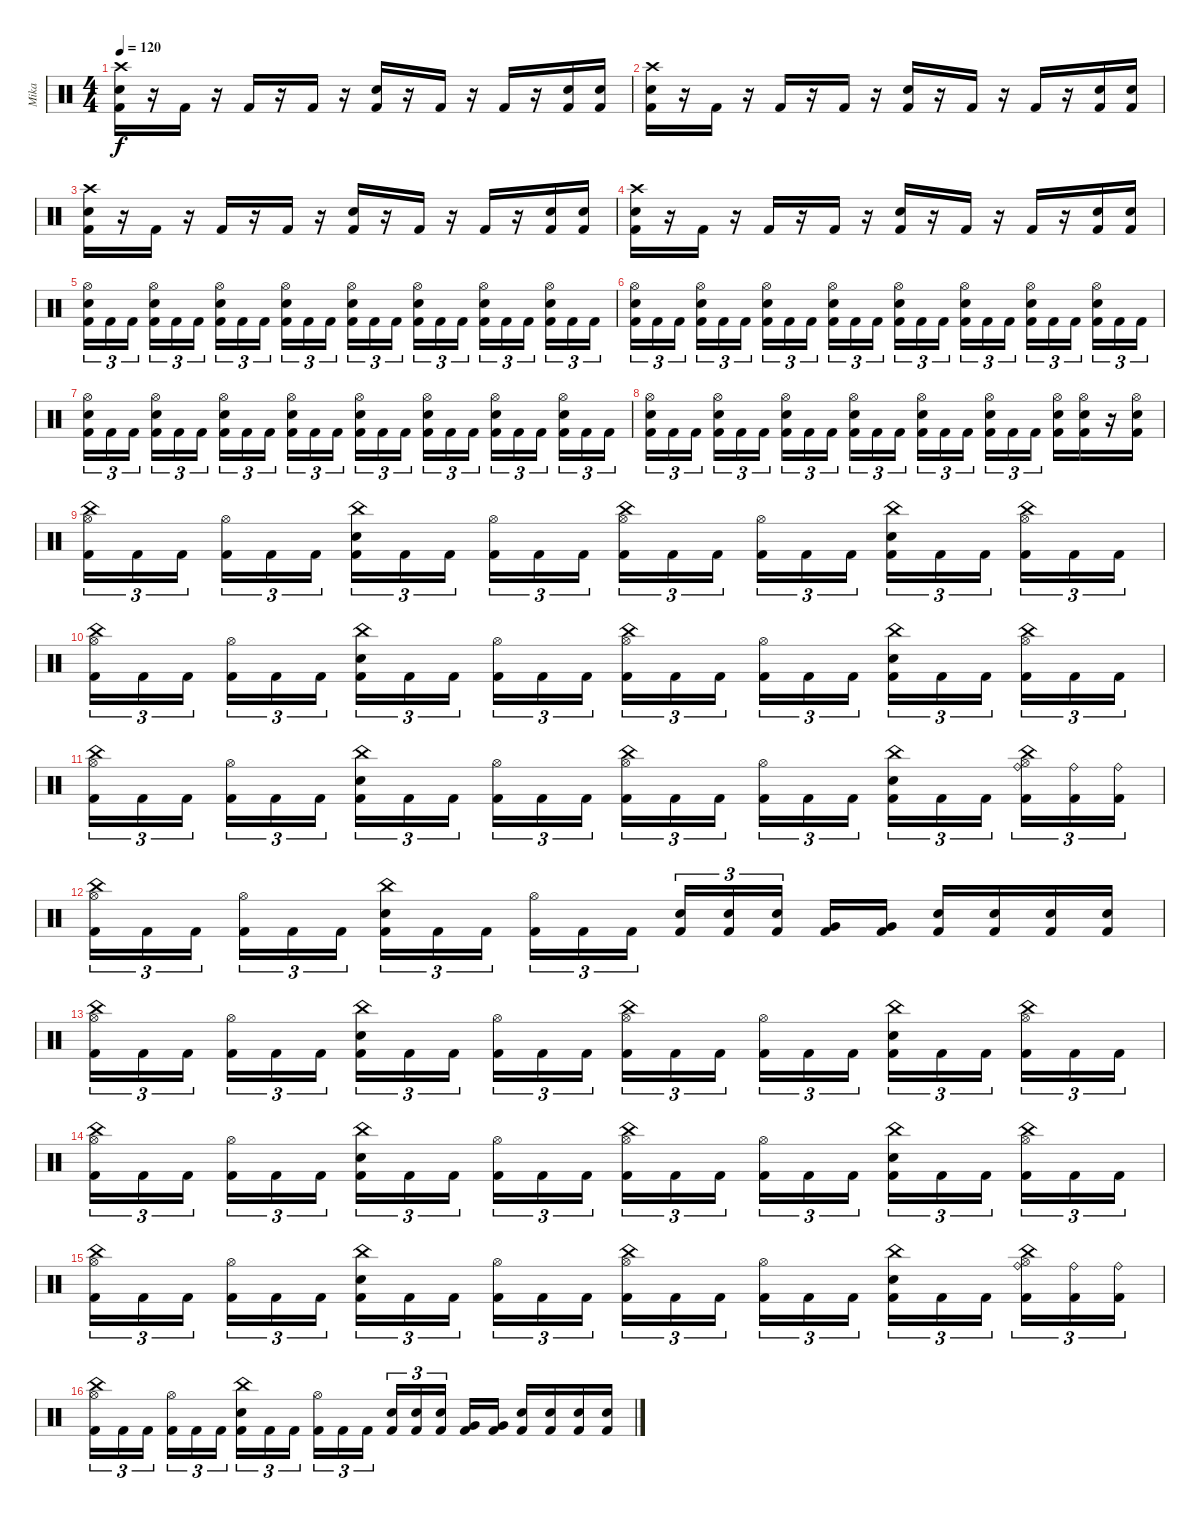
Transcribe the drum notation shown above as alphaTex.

\track ("Mika" "Mika") {instrument percussion}
\staff {score}
\articulation defaults
\ts (4 4)
\tempo 120
\clef neutral
\ks c
("Crash high (hit)" "Electric Snare (hit)" "Kick (hit) 2").16{dy f} r.16 "Kick (hit) 2".16 r.16 "Kick (hit) 2".16 r.16 "Kick (hit) 2".16 r.16 ("Electric Snare (hit)" "Kick (hit) 2").16 r.16 "Kick (hit) 2".16 r.16 "Kick (hit) 2".16 r.16 ("Electric Snare (hit)" "Kick (hit) 2").16 ("Electric Snare (hit)" "Kick (hit) 2").16 |
("Crash high (hit)" "Electric Snare (hit)" "Kick (hit) 2").16 r.16 "Kick (hit) 2".16 r.16 "Kick (hit) 2".16 r.16 "Kick (hit) 2".16 r.16 ("Electric Snare (hit)" "Kick (hit) 2").16 r.16 "Kick (hit) 2".16 r.16 "Kick (hit) 2".16 r.16 ("Electric Snare (hit)" "Kick (hit) 2").16 ("Electric Snare (hit)" "Kick (hit) 2").16 |
("Crash high (hit)" "Electric Snare (hit)" "Kick (hit) 2").16 r.16 "Kick (hit) 2".16 r.16 "Kick (hit) 2".16 r.16 "Kick (hit) 2".16 r.16 ("Electric Snare (hit)" "Kick (hit) 2").16 r.16 "Kick (hit) 2".16 r.16 "Kick (hit) 2".16 r.16 ("Electric Snare (hit)" "Kick (hit) 2").16 ("Electric Snare (hit)" "Kick (hit) 2").16 |
("Crash high (hit)" "Electric Snare (hit)" "Kick (hit) 2").16 r.16 "Kick (hit) 2".16 r.16 "Kick (hit) 2".16 r.16 "Kick (hit) 2".16 r.16 ("Electric Snare (hit)" "Kick (hit) 2").16 r.16 "Kick (hit) 2".16 r.16 "Kick (hit) 2".16 r.16 ("Electric Snare (hit)" "Kick (hit) 2").16 ("Electric Snare (hit)" "Kick (hit) 2").16 |
("Electric Snare (hit)" "Hi-Hat (open)" "Kick (hit) 2").16{tu (3 2)} "Kick (hit) 2".16{tu (3 2)} "Kick (hit) 2".16{tu (3 2) beam splitsecondary} ("Electric Snare (hit)" "Hi-Hat (open)" "Kick (hit) 2").16{tu (3 2)} "Kick (hit) 2".16{tu (3 2)} "Kick (hit) 2".16{tu (3 2)} ("Electric Snare (hit)" "Hi-Hat (open)" "Kick (hit) 2").16{tu (3 2)} "Kick (hit) 2".16{tu (3 2)} "Kick (hit) 2".16{tu (3 2) beam splitsecondary} ("Electric Snare (hit)" "Hi-Hat (open)" "Kick (hit) 2").16{tu (3 2)} "Kick (hit) 2".16{tu (3 2)} "Kick (hit) 2".16{tu (3 2)} ("Electric Snare (hit)" "Hi-Hat (open)" "Kick (hit) 2").16{tu (3 2)} "Kick (hit) 2".16{tu (3 2)} "Kick (hit) 2".16{tu (3 2) beam splitsecondary} ("Electric Snare (hit)" "Hi-Hat (open)" "Kick (hit) 2").16{tu (3 2)} "Kick (hit) 2".16{tu (3 2)} "Kick (hit) 2".16{tu (3 2)} ("Electric Snare (hit)" "Hi-Hat (open)" "Kick (hit) 2").16{tu (3 2)} "Kick (hit) 2".16{tu (3 2)} "Kick (hit) 2".16{tu (3 2) beam splitsecondary} ("Electric Snare (hit)" "Hi-Hat (open)" "Kick (hit) 2").16{tu (3 2)} "Kick (hit) 2".16{tu (3 2)} "Kick (hit) 2".16{tu (3 2)} |
("Electric Snare (hit)" "Hi-Hat (open)" "Kick (hit) 2").16{tu (3 2)} "Kick (hit) 2".16{tu (3 2)} "Kick (hit) 2".16{tu (3 2) beam splitsecondary} ("Electric Snare (hit)" "Hi-Hat (open)" "Kick (hit) 2").16{tu (3 2)} "Kick (hit) 2".16{tu (3 2)} "Kick (hit) 2".16{tu (3 2)} ("Electric Snare (hit)" "Hi-Hat (open)" "Kick (hit) 2").16{tu (3 2)} "Kick (hit) 2".16{tu (3 2)} "Kick (hit) 2".16{tu (3 2) beam splitsecondary} ("Electric Snare (hit)" "Hi-Hat (open)" "Kick (hit) 2").16{tu (3 2)} "Kick (hit) 2".16{tu (3 2)} "Kick (hit) 2".16{tu (3 2)} ("Electric Snare (hit)" "Hi-Hat (open)" "Kick (hit) 2").16{tu (3 2)} "Kick (hit) 2".16{tu (3 2)} "Kick (hit) 2".16{tu (3 2) beam splitsecondary} ("Electric Snare (hit)" "Hi-Hat (open)" "Kick (hit) 2").16{tu (3 2)} "Kick (hit) 2".16{tu (3 2)} "Kick (hit) 2".16{tu (3 2)} ("Electric Snare (hit)" "Hi-Hat (open)" "Kick (hit) 2").16{tu (3 2)} "Kick (hit) 2".16{tu (3 2)} "Kick (hit) 2".16{tu (3 2) beam splitsecondary} ("Electric Snare (hit)" "Hi-Hat (open)" "Kick (hit) 2").16{tu (3 2)} "Kick (hit) 2".16{tu (3 2)} "Kick (hit) 2".16{tu (3 2)} |
("Electric Snare (hit)" "Hi-Hat (open)" "Kick (hit) 2").16{tu (3 2)} "Kick (hit) 2".16{tu (3 2)} "Kick (hit) 2".16{tu (3 2) beam splitsecondary} ("Electric Snare (hit)" "Hi-Hat (open)" "Kick (hit) 2").16{tu (3 2)} "Kick (hit) 2".16{tu (3 2)} "Kick (hit) 2".16{tu (3 2)} ("Electric Snare (hit)" "Hi-Hat (open)" "Kick (hit) 2").16{tu (3 2)} "Kick (hit) 2".16{tu (3 2)} "Kick (hit) 2".16{tu (3 2) beam splitsecondary} ("Electric Snare (hit)" "Hi-Hat (open)" "Kick (hit) 2").16{tu (3 2)} "Kick (hit) 2".16{tu (3 2)} "Kick (hit) 2".16{tu (3 2)} ("Electric Snare (hit)" "Hi-Hat (open)" "Kick (hit) 2").16{tu (3 2)} "Kick (hit) 2".16{tu (3 2)} "Kick (hit) 2".16{tu (3 2) beam splitsecondary} ("Electric Snare (hit)" "Hi-Hat (open)" "Kick (hit) 2").16{tu (3 2)} "Kick (hit) 2".16{tu (3 2)} "Kick (hit) 2".16{tu (3 2)} ("Electric Snare (hit)" "Hi-Hat (open)" "Kick (hit) 2").16{tu (3 2)} "Kick (hit) 2".16{tu (3 2)} "Kick (hit) 2".16{tu (3 2) beam splitsecondary} ("Electric Snare (hit)" "Hi-Hat (open)" "Kick (hit) 2").16{tu (3 2)} "Kick (hit) 2".16{tu (3 2)} "Kick (hit) 2".16{tu (3 2)} |
("Electric Snare (hit)" "Hi-Hat (open)" "Kick (hit) 2").16{tu (3 2)} "Kick (hit) 2".16{tu (3 2)} "Kick (hit) 2".16{tu (3 2) beam splitsecondary} ("Electric Snare (hit)" "Hi-Hat (open)" "Kick (hit) 2").16{tu (3 2)} "Kick (hit) 2".16{tu (3 2)} "Kick (hit) 2".16{tu (3 2)} ("Electric Snare (hit)" "Hi-Hat (open)" "Kick (hit) 2").16{tu (3 2)} "Kick (hit) 2".16{tu (3 2)} "Kick (hit) 2".16{tu (3 2) beam splitsecondary} ("Electric Snare (hit)" "Hi-Hat (open)" "Kick (hit) 2").16{tu (3 2)} "Kick (hit) 2".16{tu (3 2)} "Kick (hit) 2".16{tu (3 2)} ("Electric Snare (hit)" "Hi-Hat (open)" "Kick (hit) 2").16{tu (3 2)} "Kick (hit) 2".16{tu (3 2)} "Kick (hit) 2".16{tu (3 2) beam splitsecondary} ("Electric Snare (hit)" "Hi-Hat (open)" "Kick (hit) 2").16{tu (3 2)} "Kick (hit) 2".16{tu (3 2)} "Kick (hit) 2".16{tu (3 2)} ("Electric Snare (hit)" "Hi-Hat (open)" "Kick (hit) 2").16 ("Electric Snare (hit)" "Hi-Hat (open)" "Kick (hit) 2").16 r.16 ("Electric Snare (hit)" "Hi-Hat (open)" "Kick (hit) 2").16 |
("China (hit)" "Hi-Hat (open)" "Kick (hit) 2").16{tu (3 2)} "Kick (hit) 2".16{tu (3 2)} "Kick (hit) 2".16{tu (3 2) beam splitsecondary} ("Hi-Hat (open)" "Kick (hit) 2").16{tu (3 2)} "Kick (hit) 2".16{tu (3 2)} "Kick (hit) 2".16{tu (3 2)} ("Electric Snare (hit)" "China (hit)" "Kick (hit) 2").16{tu (3 2)} "Kick (hit) 2".16{tu (3 2)} "Kick (hit) 2".16{tu (3 2) beam splitsecondary} ("Hi-Hat (open)" "Kick (hit) 2").16{tu (3 2)} "Kick (hit) 2".16{tu (3 2)} "Kick (hit) 2".16{tu (3 2)} ("China (hit)" "Hi-Hat (open)" "Kick (hit) 2").16{tu (3 2)} "Kick (hit) 2".16{tu (3 2)} "Kick (hit) 2".16{tu (3 2) beam splitsecondary} ("Hi-Hat (open)" "Kick (hit) 2").16{tu (3 2)} "Kick (hit) 2".16{tu (3 2)} "Kick (hit) 2".16{tu (3 2)} ("Electric Snare (hit)" "China (hit)" "Kick (hit) 2").16{tu (3 2)} "Kick (hit) 2".16{tu (3 2)} "Kick (hit) 2".16{tu (3 2) beam splitsecondary} ("China (hit)" "Hi-Hat (open)" "Kick (hit) 2").16{tu (3 2)} "Kick (hit) 2".16{tu (3 2)} "Kick (hit) 2".16{tu (3 2)} |
("China (hit)" "Hi-Hat (open)" "Kick (hit) 2").16{tu (3 2)} "Kick (hit) 2".16{tu (3 2)} "Kick (hit) 2".16{tu (3 2) beam splitsecondary} ("Hi-Hat (open)" "Kick (hit) 2").16{tu (3 2)} "Kick (hit) 2".16{tu (3 2)} "Kick (hit) 2".16{tu (3 2)} ("Electric Snare (hit)" "China (hit)" "Kick (hit) 2").16{tu (3 2)} "Kick (hit) 2".16{tu (3 2)} "Kick (hit) 2".16{tu (3 2) beam splitsecondary} ("Hi-Hat (open)" "Kick (hit) 2").16{tu (3 2)} "Kick (hit) 2".16{tu (3 2)} "Kick (hit) 2".16{tu (3 2)} ("China (hit)" "Hi-Hat (open)" "Kick (hit) 2").16{tu (3 2)} "Kick (hit) 2".16{tu (3 2)} "Kick (hit) 2".16{tu (3 2) beam splitsecondary} ("Hi-Hat (open)" "Kick (hit) 2").16{tu (3 2)} "Kick (hit) 2".16{tu (3 2)} "Kick (hit) 2".16{tu (3 2)} ("Electric Snare (hit)" "China (hit)" "Kick (hit) 2").16{tu (3 2)} "Kick (hit) 2".16{tu (3 2)} "Kick (hit) 2".16{tu (3 2) beam splitsecondary} ("China (hit)" "Hi-Hat (open)" "Kick (hit) 2").16{tu (3 2)} "Kick (hit) 2".16{tu (3 2)} "Kick (hit) 2".16{tu (3 2)} |
("China (hit)" "Hi-Hat (open)" "Kick (hit) 2").16{tu (3 2)} "Kick (hit) 2".16{tu (3 2)} "Kick (hit) 2".16{tu (3 2) beam splitsecondary} ("Hi-Hat (open)" "Kick (hit) 2").16{tu (3 2)} "Kick (hit) 2".16{tu (3 2)} "Kick (hit) 2".16{tu (3 2)} ("Electric Snare (hit)" "China (hit)" "Kick (hit) 2").16{tu (3 2)} "Kick (hit) 2".16{tu (3 2)} "Kick (hit) 2".16{tu (3 2) beam splitsecondary} ("Hi-Hat (open)" "Kick (hit) 2").16{tu (3 2)} "Kick (hit) 2".16{tu (3 2)} "Kick (hit) 2".16{tu (3 2)} ("China (hit)" "Hi-Hat (open)" "Kick (hit) 2").16{tu (3 2)} "Kick (hit) 2".16{tu (3 2)} "Kick (hit) 2".16{tu (3 2) beam splitsecondary} ("Hi-Hat (open)" "Kick (hit) 2").16{tu (3 2)} "Kick (hit) 2".16{tu (3 2)} "Kick (hit) 2".16{tu (3 2)} ("Electric Snare (hit)" "China (hit)" "Kick (hit) 2").16{tu (3 2)} "Kick (hit) 2".16{tu (3 2)} "Kick (hit) 2".16{tu (3 2) beam splitsecondary} ("Ride (bell)" "China (hit)" "Hi-Hat (open)" "Kick (hit) 2").16{tu (3 2)} ("Ride (bell)" "Kick (hit) 2").16{tu (3 2)} ("Ride (bell)" "Kick (hit) 2").16{tu (3 2)} |
("China (hit)" "Hi-Hat (open)" "Kick (hit) 2").16{tu (3 2)} "Kick (hit) 2".16{tu (3 2)} "Kick (hit) 2".16{tu (3 2) beam splitsecondary} ("Hi-Hat (open)" "Kick (hit) 2").16{tu (3 2)} "Kick (hit) 2".16{tu (3 2)} "Kick (hit) 2".16{tu (3 2)} ("Electric Snare (hit)" "China (hit)" "Kick (hit) 2").16{tu (3 2)} "Kick (hit) 2".16{tu (3 2)} "Kick (hit) 2".16{tu (3 2) beam splitsecondary} ("Hi-Hat (open)" "Kick (hit) 2").16{tu (3 2)} "Kick (hit) 2".16{tu (3 2)} "Kick (hit) 2".16{tu (3 2)} ("Electric Snare (hit)" "Kick (hit) 2").16{tu (3 2)} ("Electric Snare (hit)" "Kick (hit) 2").16{tu (3 2)} ("Electric Snare (hit)" "Kick (hit) 2").16{tu (3 2) beam splitsecondary} ("Very Low Tom (hit)" "Kick (hit) 2").16 ("Very Low Tom (hit)" "Kick (hit) 2").16 ("Electric Snare (hit)" "Kick (hit) 2").16 ("Electric Snare (hit)" "Kick (hit) 2").16 ("Snare (hit) 2" "Kick (hit) 2").16 ("Snare (hit) 2" "Kick (hit) 2").16 |
("China (hit)" "Hi-Hat (open)" "Kick (hit) 2").16{tu (3 2)} "Kick (hit) 2".16{tu (3 2)} "Kick (hit) 2".16{tu (3 2) beam splitsecondary} ("Hi-Hat (open)" "Kick (hit) 2").16{tu (3 2)} "Kick (hit) 2".16{tu (3 2)} "Kick (hit) 2".16{tu (3 2)} ("Electric Snare (hit)" "China (hit)" "Kick (hit) 2").16{tu (3 2)} "Kick (hit) 2".16{tu (3 2)} "Kick (hit) 2".16{tu (3 2) beam splitsecondary} ("Hi-Hat (open)" "Kick (hit) 2").16{tu (3 2)} "Kick (hit) 2".16{tu (3 2)} "Kick (hit) 2".16{tu (3 2)} ("China (hit)" "Hi-Hat (open)" "Kick (hit) 2").16{tu (3 2)} "Kick (hit) 2".16{tu (3 2)} "Kick (hit) 2".16{tu (3 2) beam splitsecondary} ("Hi-Hat (open)" "Kick (hit) 2").16{tu (3 2)} "Kick (hit) 2".16{tu (3 2)} "Kick (hit) 2".16{tu (3 2)} ("Electric Snare (hit)" "China (hit)" "Kick (hit) 2").16{tu (3 2)} "Kick (hit) 2".16{tu (3 2)} "Kick (hit) 2".16{tu (3 2) beam splitsecondary} ("China (hit)" "Hi-Hat (open)" "Kick (hit) 2").16{tu (3 2)} "Kick (hit) 2".16{tu (3 2)} "Kick (hit) 2".16{tu (3 2)} |
("China (hit)" "Hi-Hat (open)" "Kick (hit) 2").16{tu (3 2)} "Kick (hit) 2".16{tu (3 2)} "Kick (hit) 2".16{tu (3 2) beam splitsecondary} ("Hi-Hat (open)" "Kick (hit) 2").16{tu (3 2)} "Kick (hit) 2".16{tu (3 2)} "Kick (hit) 2".16{tu (3 2)} ("Electric Snare (hit)" "China (hit)" "Kick (hit) 2").16{tu (3 2)} "Kick (hit) 2".16{tu (3 2)} "Kick (hit) 2".16{tu (3 2) beam splitsecondary} ("Hi-Hat (open)" "Kick (hit) 2").16{tu (3 2)} "Kick (hit) 2".16{tu (3 2)} "Kick (hit) 2".16{tu (3 2)} ("China (hit)" "Hi-Hat (open)" "Kick (hit) 2").16{tu (3 2)} "Kick (hit) 2".16{tu (3 2)} "Kick (hit) 2".16{tu (3 2) beam splitsecondary} ("Hi-Hat (open)" "Kick (hit) 2").16{tu (3 2)} "Kick (hit) 2".16{tu (3 2)} "Kick (hit) 2".16{tu (3 2)} ("Electric Snare (hit)" "China (hit)" "Kick (hit) 2").16{tu (3 2)} "Kick (hit) 2".16{tu (3 2)} "Kick (hit) 2".16{tu (3 2) beam splitsecondary} ("China (hit)" "Hi-Hat (open)" "Kick (hit) 2").16{tu (3 2)} "Kick (hit) 2".16{tu (3 2)} "Kick (hit) 2".16{tu (3 2)} |
("China (hit)" "Hi-Hat (open)" "Kick (hit) 2").16{tu (3 2)} "Kick (hit) 2".16{tu (3 2)} "Kick (hit) 2".16{tu (3 2) beam splitsecondary} ("Hi-Hat (open)" "Kick (hit) 2").16{tu (3 2)} "Kick (hit) 2".16{tu (3 2)} "Kick (hit) 2".16{tu (3 2)} ("Electric Snare (hit)" "China (hit)" "Kick (hit) 2").16{tu (3 2)} "Kick (hit) 2".16{tu (3 2)} "Kick (hit) 2".16{tu (3 2) beam splitsecondary} ("Hi-Hat (open)" "Kick (hit) 2").16{tu (3 2)} "Kick (hit) 2".16{tu (3 2)} "Kick (hit) 2".16{tu (3 2)} ("China (hit)" "Hi-Hat (open)" "Kick (hit) 2").16{tu (3 2)} "Kick (hit) 2".16{tu (3 2)} "Kick (hit) 2".16{tu (3 2) beam splitsecondary} ("Hi-Hat (open)" "Kick (hit) 2").16{tu (3 2)} "Kick (hit) 2".16{tu (3 2)} "Kick (hit) 2".16{tu (3 2)} ("Electric Snare (hit)" "China (hit)" "Kick (hit) 2").16{tu (3 2)} "Kick (hit) 2".16{tu (3 2)} "Kick (hit) 2".16{tu (3 2) beam splitsecondary} ("Ride (bell)" "China (hit)" "Hi-Hat (open)" "Kick (hit) 2").16{tu (3 2)} ("Ride (bell)" "Kick (hit) 2").16{tu (3 2)} ("Ride (bell)" "Kick (hit) 2").16{tu (3 2)} |
("China (hit)" "Hi-Hat (open)" "Kick (hit) 2").16{tu (3 2)} "Kick (hit) 2".16{tu (3 2)} "Kick (hit) 2".16{tu (3 2) beam splitsecondary} ("Hi-Hat (open)" "Kick (hit) 2").16{tu (3 2)} "Kick (hit) 2".16{tu (3 2)} "Kick (hit) 2".16{tu (3 2)} ("Electric Snare (hit)" "China (hit)" "Kick (hit) 2").16{tu (3 2)} "Kick (hit) 2".16{tu (3 2)} "Kick (hit) 2".16{tu (3 2) beam splitsecondary} ("Hi-Hat (open)" "Kick (hit) 2").16{tu (3 2)} "Kick (hit) 2".16{tu (3 2)} "Kick (hit) 2".16{tu (3 2)} ("Electric Snare (hit)" "Kick (hit) 2").16{tu (3 2)} ("Electric Snare (hit)" "Kick (hit) 2").16{tu (3 2)} ("Electric Snare (hit)" "Kick (hit) 2").16{tu (3 2) beam splitsecondary} ("Very Low Tom (hit)" "Kick (hit) 2").16 ("Very Low Tom (hit)" "Kick (hit) 2").16 ("Electric Snare (hit)" "Kick (hit) 2").16 ("Electric Snare (hit)" "Kick (hit) 2").16 ("Snare (hit) 2" "Kick (hit) 2").16 ("Snare (hit) 2" "Kick (hit) 2").16
